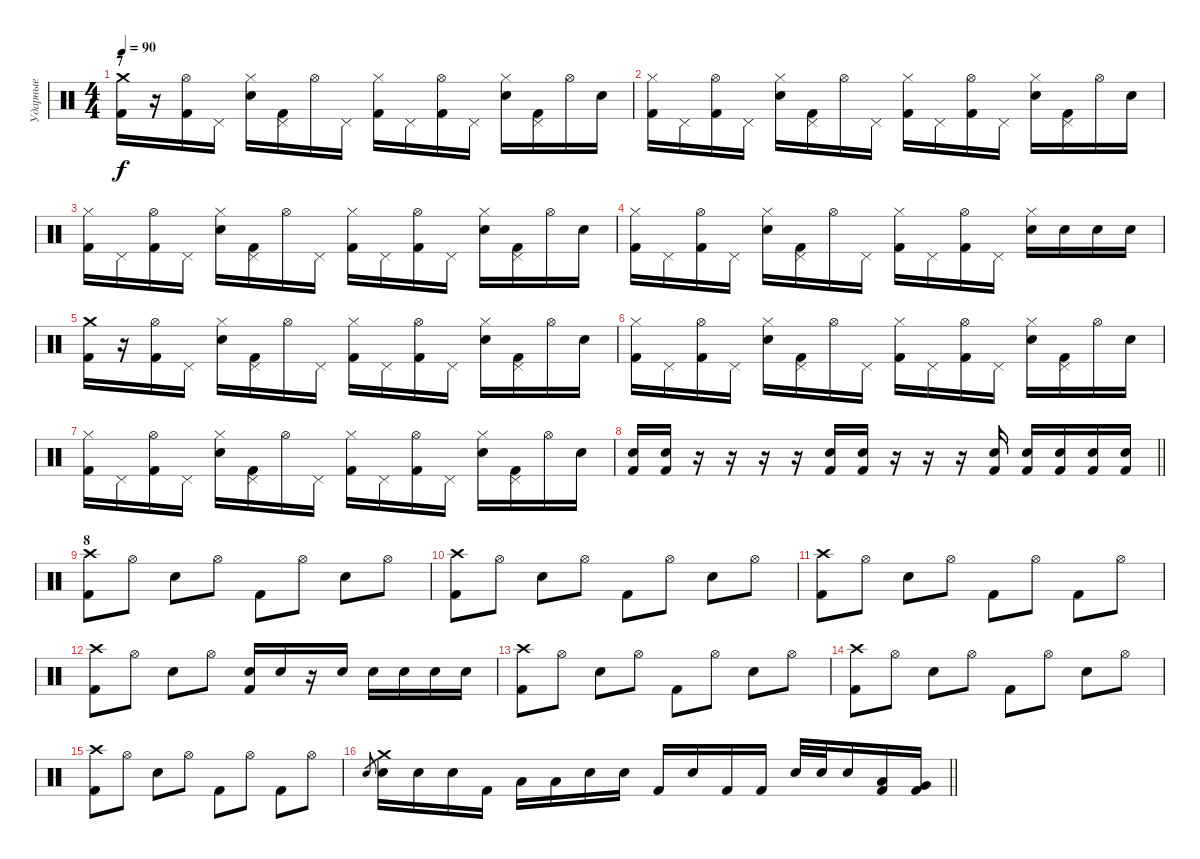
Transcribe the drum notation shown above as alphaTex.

\track ("Ударные" "Ударные") {instrument percussion}
\staff {score}
\articulation defaults
\ts (4 4)
\section ("" "7")
\tempo 90
\clef neutral
\ks c
("Crash medium (hit)" "Kick (hit) 2").16{dy f} r.16 ("Hi-Hat (open)" "Kick (hit) 2").16 "Pedal Hi-Hat (hit)".16 ("Hi-Hat (closed)" "Electric Snare (hit)").16 ("Pedal Hi-Hat (hit)" "Kick (hit) 2").16 "Hi-Hat (open)".16 "Pedal Hi-Hat (hit)".16 ("Hi-Hat (closed)" "Kick (hit) 2").16 "Pedal Hi-Hat (hit)".16 ("Hi-Hat (open)" "Kick (hit) 2").16 "Pedal Hi-Hat (hit)".16 ("Hi-Hat (closed)" "Electric Snare (hit)").16 ("Pedal Hi-Hat (hit)" "Kick (hit) 2").16 "Hi-Hat (open)".16 "Electric Snare (hit)".16 |
("Hi-Hat (closed)" "Kick (hit) 2").16 "Pedal Hi-Hat (hit)".16 ("Hi-Hat (open)" "Kick (hit) 2").16 "Pedal Hi-Hat (hit)".16 ("Hi-Hat (closed)" "Electric Snare (hit)").16 ("Pedal Hi-Hat (hit)" "Kick (hit) 2").16 "Hi-Hat (open)".16 "Pedal Hi-Hat (hit)".16 ("Hi-Hat (closed)" "Kick (hit) 2").16 "Pedal Hi-Hat (hit)".16 ("Hi-Hat (open)" "Kick (hit) 2").16 "Pedal Hi-Hat (hit)".16 ("Hi-Hat (closed)" "Electric Snare (hit)").16 ("Pedal Hi-Hat (hit)" "Kick (hit) 2").16 "Hi-Hat (open)".16 "Electric Snare (hit)".16 |
("Hi-Hat (closed)" "Kick (hit) 2").16 "Pedal Hi-Hat (hit)".16 ("Hi-Hat (open)" "Kick (hit) 2").16 "Pedal Hi-Hat (hit)".16 ("Hi-Hat (closed)" "Electric Snare (hit)").16 ("Pedal Hi-Hat (hit)" "Kick (hit) 2").16 "Hi-Hat (open)".16 "Pedal Hi-Hat (hit)".16 ("Hi-Hat (closed)" "Kick (hit) 2").16 "Pedal Hi-Hat (hit)".16 ("Hi-Hat (open)" "Kick (hit) 2").16 "Pedal Hi-Hat (hit)".16 ("Hi-Hat (closed)" "Electric Snare (hit)").16 ("Pedal Hi-Hat (hit)" "Kick (hit) 2").16 "Hi-Hat (open)".16 "Electric Snare (hit)".16 |
("Hi-Hat (closed)" "Kick (hit) 2").16 "Pedal Hi-Hat (hit)".16 ("Hi-Hat (open)" "Kick (hit) 2").16 "Pedal Hi-Hat (hit)".16 ("Hi-Hat (closed)" "Electric Snare (hit)").16 ("Pedal Hi-Hat (hit)" "Kick (hit) 2").16 "Hi-Hat (open)".16 "Pedal Hi-Hat (hit)".16 ("Hi-Hat (closed)" "Kick (hit) 2").16 "Pedal Hi-Hat (hit)".16 ("Hi-Hat (open)" "Kick (hit) 2").16 "Pedal Hi-Hat (hit)".16 ("Hi-Hat (closed)" "Electric Snare (hit)").16 "Electric Snare (hit)".16 "Electric Snare (hit)".16 "Electric Snare (hit)".16 |
("Crash medium (hit)" "Kick (hit) 2").16 r.16 ("Hi-Hat (open)" "Kick (hit) 2").16 "Pedal Hi-Hat (hit)".16 ("Hi-Hat (closed)" "Electric Snare (hit)").16 ("Pedal Hi-Hat (hit)" "Kick (hit) 2").16 "Hi-Hat (open)".16 "Pedal Hi-Hat (hit)".16 ("Hi-Hat (closed)" "Kick (hit) 2").16 "Pedal Hi-Hat (hit)".16 ("Hi-Hat (open)" "Kick (hit) 2").16 "Pedal Hi-Hat (hit)".16 ("Hi-Hat (closed)" "Electric Snare (hit)").16 ("Pedal Hi-Hat (hit)" "Kick (hit) 2").16 "Hi-Hat (open)".16 "Electric Snare (hit)".16 |
("Hi-Hat (closed)" "Kick (hit) 2").16 "Pedal Hi-Hat (hit)".16 ("Hi-Hat (open)" "Kick (hit) 2").16 "Pedal Hi-Hat (hit)".16 ("Hi-Hat (closed)" "Electric Snare (hit)").16 ("Pedal Hi-Hat (hit)" "Kick (hit) 2").16 "Hi-Hat (open)".16 "Pedal Hi-Hat (hit)".16 ("Hi-Hat (closed)" "Kick (hit) 2").16 "Pedal Hi-Hat (hit)".16 ("Hi-Hat (open)" "Kick (hit) 2").16 "Pedal Hi-Hat (hit)".16 ("Hi-Hat (closed)" "Electric Snare (hit)").16 ("Pedal Hi-Hat (hit)" "Kick (hit) 2").16 "Hi-Hat (open)".16 "Electric Snare (hit)".16 |
("Hi-Hat (closed)" "Kick (hit) 2").16 "Pedal Hi-Hat (hit)".16 ("Hi-Hat (open)" "Kick (hit) 2").16 "Pedal Hi-Hat (hit)".16 ("Hi-Hat (closed)" "Electric Snare (hit)").16 ("Pedal Hi-Hat (hit)" "Kick (hit) 2").16 "Hi-Hat (open)".16 "Pedal Hi-Hat (hit)".16 ("Hi-Hat (closed)" "Kick (hit) 2").16 "Pedal Hi-Hat (hit)".16 ("Hi-Hat (open)" "Kick (hit) 2").16 "Pedal Hi-Hat (hit)".16 ("Hi-Hat (closed)" "Electric Snare (hit)").16 ("Pedal Hi-Hat (hit)" "Kick (hit) 2").16 "Hi-Hat (open)".16 "Electric Snare (hit)".16 |
\barLineRight lightlight
("Kick (hit) 2" "Electric Snare (hit)").16 ("Kick (hit) 2" "Electric Snare (hit)").16 r.16 r.16 r.16 r.16 ("Kick (hit) 2" "Electric Snare (hit)").16 ("Kick (hit) 2" "Electric Snare (hit)").16 r.16 r.16 r.16 ("Kick (hit) 2" "Electric Snare (hit)").16 ("Kick (hit) 2" "Electric Snare (hit)").16 ("Kick (hit) 2" "Electric Snare (hit)").16 ("Kick (hit) 2" "Electric Snare (hit)").16 ("Kick (hit) 2" "Electric Snare (hit)").16 |
\section ("" "8")
("Crash high (hit)" "Kick (hit) 2").8 "Hi-Hat (open)".8 "Snare (hit) 2".8 "Hi-Hat (open)".8 "Kick (hit) 2".8 "Hi-Hat (open)".8 "Snare (hit) 2".8 "Hi-Hat (open)".8 |
("Crash high (hit)" "Kick (hit) 2").8 "Hi-Hat (open)".8 "Snare (hit) 2".8 "Hi-Hat (open)".8 "Kick (hit) 2".8 "Hi-Hat (open)".8 "Snare (hit) 2".8 "Hi-Hat (open)".8 |
("Crash high (hit)" "Kick (hit) 2").8 "Hi-Hat (open)".8 "Snare (hit) 2".8 "Hi-Hat (open)".8 "Kick (hit) 2".8 "Hi-Hat (open)".8 "Kick (hit) 2".8 "Hi-Hat (open)".8 |
("Crash high (hit)" "Kick (hit) 2").8 "Hi-Hat (open)".8 "Snare (hit) 2".8 "Hi-Hat (open)".8 ("Snare (hit) 2" "Kick (hit) 2").16 "Snare (hit) 2".16 r.16 "Snare (hit) 2".16 "Snare (hit) 2".16 "Snare (hit) 2".16 "Snare (hit) 2".16 "Snare (hit) 2".16 |
("Crash high (hit)" "Kick (hit) 2").8 "Hi-Hat (open)".8 "Snare (hit) 2".8 "Hi-Hat (open)".8 "Kick (hit) 2".8 "Hi-Hat (open)".8 "Snare (hit) 2".8 "Hi-Hat (open)".8 |
("Crash high (hit)" "Kick (hit) 2").8 "Hi-Hat (open)".8 "Snare (hit) 2".8 "Hi-Hat (open)".8 "Kick (hit) 2".8 "Hi-Hat (open)".8 "Snare (hit) 2".8 "Hi-Hat (open)".8 |
("Crash high (hit)" "Kick (hit) 2").8 "Hi-Hat (open)".8 "Snare (hit) 2".8 "Hi-Hat (open)".8 "Kick (hit) 2".8 "Hi-Hat (open)".8 "Kick (hit) 2".8 "Hi-Hat (open)".8 |
\barLineRight lightlight "Electric Snare (hit)".8{gr}
("Crash medium (hit)" "Electric Snare (hit)").16 "Electric Snare (hit)".16 "Electric Snare (hit)".16 "Kick (hit) 2".16 "Low Tom (hit)".16 "Low Tom (hit)".16 "Electric Snare (hit)".16 "Electric Snare (hit)".16 "Kick (hit) 2".16 "Electric Snare (hit)".16 "Kick (hit) 2".16 "Kick (hit) 2".16 "Electric Snare (hit)".32 "Electric Snare (hit)".32 "Electric Snare (hit)".16 ("Low Tom (hit)" "Kick (hit) 2").16 ("Very Low Tom (hit)" "Kick (hit) 2").16
